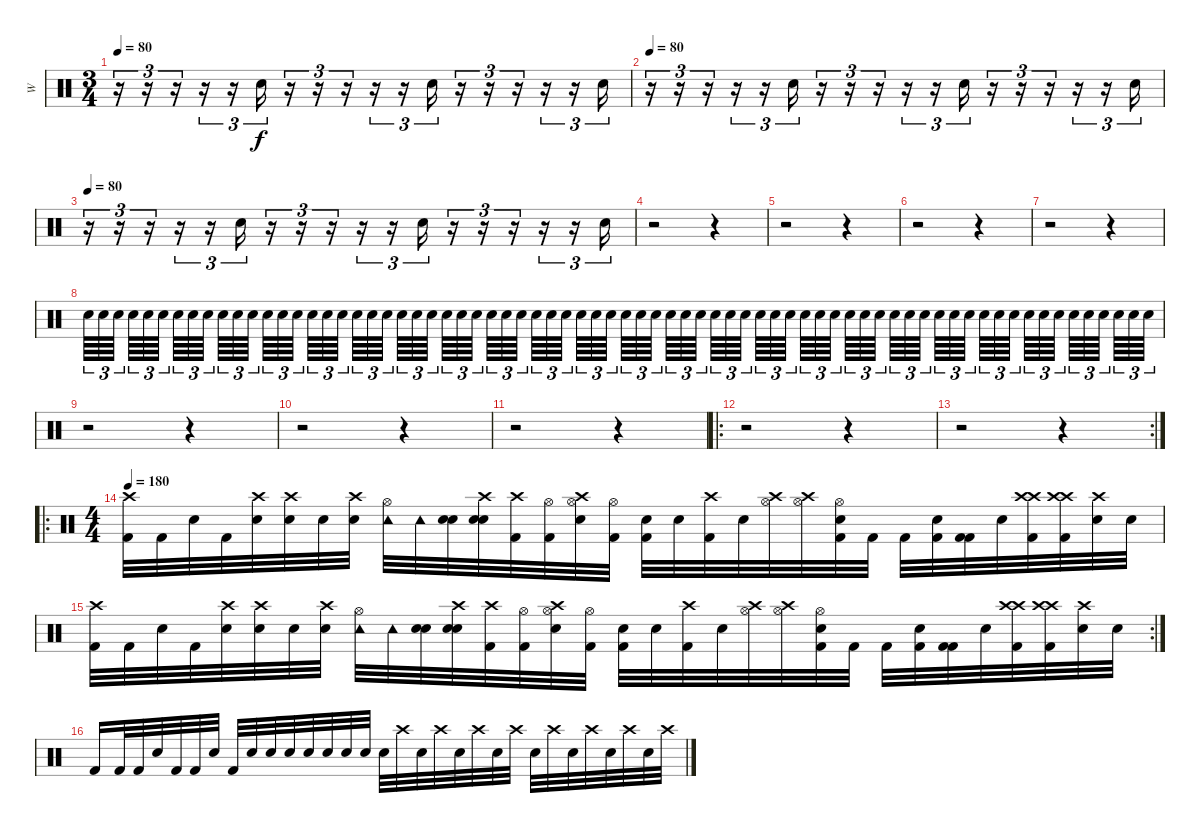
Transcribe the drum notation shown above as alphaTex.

\track ("W" "W") {instrument percussion}
\staff {score}
\articulation defaults
\ts (3 4)
\tempo 2
\tempo 80
\clef neutral
\ks c
r.16{tu (3 2) dy f} r.16{tu (3 2)} r.16{tu (3 2)} r.16{tu (3 2)} r.16{tu (3 2)} "Electric Snare (hit)".16{tu (3 2)} r.16{tu (3 2)} r.16{tu (3 2)} r.16{tu (3 2)} r.16{tu (3 2)} r.16{tu (3 2)} "Electric Snare (hit)".16{tu (3 2)} r.16{tu (3 2)} r.16{tu (3 2)} r.16{tu (3 2)} r.16{tu (3 2)} r.16{tu (3 2)} "Electric Snare (hit)".16{tu (3 2)} |
\tempo 2
\tempo 80
r.16{tu (3 2)} r.16{tu (3 2)} r.16{tu (3 2)} r.16{tu (3 2)} r.16{tu (3 2)} "Electric Snare (hit)".16{tu (3 2)} r.16{tu (3 2)} r.16{tu (3 2)} r.16{tu (3 2)} r.16{tu (3 2)} r.16{tu (3 2)} "Electric Snare (hit)".16{tu (3 2)} r.16{tu (3 2)} r.16{tu (3 2)} r.16{tu (3 2)} r.16{tu (3 2)} r.16{tu (3 2)} "Electric Snare (hit)".16{tu (3 2)} |
\tempo 2
\tempo 80
r.16{tu (3 2)} r.16{tu (3 2)} r.16{tu (3 2)} r.16{tu (3 2)} r.16{tu (3 2)} "Electric Snare (hit)".16{tu (3 2)} r.16{tu (3 2)} r.16{tu (3 2)} r.16{tu (3 2)} r.16{tu (3 2)} r.16{tu (3 2)} "Electric Snare (hit)".16{tu (3 2)} r.16{tu (3 2)} r.16{tu (3 2)} r.16{tu (3 2)} r.16{tu (3 2)} r.16{tu (3 2)} "Electric Snare (hit)".16{tu (3 2)} |
r.2 r.4 |
r.2 r.4 |
r.2 r.4 |
r.2 r.4 |
"Electric Snare (hit)".64{tu (3 2)} "Electric Snare (hit)".64{tu (3 2)} "Electric Snare (hit)".64{tu (3 2)} "Electric Snare (hit)".64{tu (3 2)} "Electric Snare (hit)".64{tu (3 2)} "Electric Snare (hit)".64{tu (3 2)} "Electric Snare (hit)".64{tu (3 2)} "Electric Snare (hit)".64{tu (3 2)} "Electric Snare (hit)".64{tu (3 2)} "Electric Snare (hit)".64{tu (3 2)} "Electric Snare (hit)".64{tu (3 2)} "Electric Snare (hit)".64{tu (3 2)} "Electric Snare (hit)".64{tu (3 2)} "Electric Snare (hit)".64{tu (3 2)} "Electric Snare (hit)".64{tu (3 2)} "Electric Snare (hit)".64{tu (3 2)} "Electric Snare (hit)".64{tu (3 2)} "Electric Snare (hit)".64{tu (3 2)} "Electric Snare (hit)".64{tu (3 2)} "Electric Snare (hit)".64{tu (3 2)} "Electric Snare (hit)".64{tu (3 2)} "Electric Snare (hit)".64{tu (3 2)} "Electric Snare (hit)".64{tu (3 2)} "Electric Snare (hit)".64{tu (3 2)} "Electric Snare (hit)".64{tu (3 2)} "Electric Snare (hit)".64{tu (3 2)} "Electric Snare (hit)".64{tu (3 2)} "Electric Snare (hit)".64{tu (3 2)} "Electric Snare (hit)".64{tu (3 2)} "Electric Snare (hit)".64{tu (3 2)} "Electric Snare (hit)".64{tu (3 2)} "Electric Snare (hit)".64{tu (3 2)} "Electric Snare (hit)".64{tu (3 2)} "Electric Snare (hit)".64{tu (3 2)} "Electric Snare (hit)".64{tu (3 2)} "Electric Snare (hit)".64{tu (3 2)} "Electric Snare (hit)".64{tu (3 2)} "Electric Snare (hit)".64{tu (3 2)} "Electric Snare (hit)".64{tu (3 2)} "Electric Snare (hit)".64{tu (3 2)} "Electric Snare (hit)".64{tu (3 2)} "Electric Snare (hit)".64{tu (3 2)} "Electric Snare (hit)".64{tu (3 2)} "Electric Snare (hit)".64{tu (3 2)} "Electric Snare (hit)".64{tu (3 2)} "Electric Snare (hit)".64{tu (3 2)} "Electric Snare (hit)".64{tu (3 2)} "Electric Snare (hit)".64{tu (3 2)} "Electric Snare (hit)".64{tu (3 2)} "Electric Snare (hit)".64{tu (3 2)} "Electric Snare (hit)".64{tu (3 2)} "Electric Snare (hit)".64{tu (3 2)} "Electric Snare (hit)".64{tu (3 2)} "Electric Snare (hit)".64{tu (3 2)} "Electric Snare (hit)".64{tu (3 2)} "Electric Snare (hit)".64{tu (3 2)} "Electric Snare (hit)".64{tu (3 2)} "Electric Snare (hit)".64{tu (3 2)} "Electric Snare (hit)".64{tu (3 2)} "Electric Snare (hit)".64{tu (3 2)} "Electric Snare (hit)".64{tu (3 2)} "Electric Snare (hit)".64{tu (3 2)} "Electric Snare (hit)".64{tu (3 2)} "Electric Snare (hit)".64{tu (3 2)} "Electric Snare (hit)".64{tu (3 2)} "Electric Snare (hit)".64{tu (3 2)} "Electric Snare (hit)".64{tu (3 2)} "Electric Snare (hit)".64{tu (3 2)} "Electric Snare (hit)".64{tu (3 2)} "Electric Snare (hit)".64{tu (3 2)} "Electric Snare (hit)".64{tu (3 2)} "Electric Snare (hit)".64{tu (3 2)} |
r.2 r.4 |
r.2 r.4 |
r.2 r.4 |
\ro
r.2 r.4 |
\rc 2
r.2 r.4 |
\ro
\ts (4 4)
\tempo 180
("Crash high (hit)" "Kick (hit) 2").32 "Kick (hit) 2".32 "Electric Snare (hit)".32 "Kick (hit) 2".32 ("Crash high (hit)" "Electric Snare (hit)").32 ("Electric Snare (hit)" "Crash high (hit)").32 "Electric Snare (hit)".32 ("Crash high (hit)" "Electric Snare (hit)").32 ("Tambourine (hit)" "Hi-Hat (open)").32 "Tambourine (hit)".32 ("Electric Snare (hit)" "Electric Snare (hit)").32 ("Crash high (hit)" "Electric Snare (hit)" "Electric Snare (hit)").32 ("Kick (hit) 2" "Crash high (hit)").32 ("Kick (hit) 2" "Hi-Hat (open)").32 ("Crash high (hit)" "Hi-Hat (open)" "Electric Snare (hit)").32 ("Hi-Hat (open)" "Kick (hit) 2").32 ("Electric Snare (hit)" "Kick (hit) 2").32 "Electric Snare (hit)".32 ("Crash high (hit)" "Kick (hit) 2").32 "Electric Snare (hit)".32 ("Crash high (hit)" "Hi-Hat (open)").32 ("Crash high (hit)" "Hi-Hat (open)").32 ("Hi-Hat (open)" "Electric Snare (hit)" "Kick (hit) 2").32 "Kick (hit) 2".32 "Kick (hit) 2".32 ("Electric Snare (hit)" "Kick (hit) 2").32 ("Kick (hit) 2" "Kick (hit) 2").32 "Electric Snare (hit)".32 ("Kick (hit) 2" "Crash high (hit)" "Crash high (hit)").32 ("Kick (hit) 2" "Crash high (hit)" "Crash high (hit)").32 ("Electric Snare (hit)" "Crash high (hit)").32 "Electric Snare (hit)".32 |
\rc 2
("Crash high (hit)" "Kick (hit) 2").32 "Kick (hit) 2".32 "Electric Snare (hit)".32 "Kick (hit) 2".32 ("Crash high (hit)" "Electric Snare (hit)").32 ("Electric Snare (hit)" "Crash high (hit)").32 "Electric Snare (hit)".32 ("Crash high (hit)" "Electric Snare (hit)").32 ("Tambourine (hit)" "Hi-Hat (open)").32 "Tambourine (hit)".32 ("Electric Snare (hit)" "Electric Snare (hit)").32 ("Crash high (hit)" "Electric Snare (hit)" "Electric Snare (hit)").32 ("Kick (hit) 2" "Crash high (hit)").32 ("Kick (hit) 2" "Hi-Hat (open)").32 ("Crash high (hit)" "Hi-Hat (open)" "Electric Snare (hit)").32 ("Hi-Hat (open)" "Kick (hit) 2").32 ("Electric Snare (hit)" "Kick (hit) 2").32 "Electric Snare (hit)".32 ("Crash high (hit)" "Kick (hit) 2").32 "Electric Snare (hit)".32 ("Crash high (hit)" "Hi-Hat (open)").32 ("Crash high (hit)" "Hi-Hat (open)").32 ("Hi-Hat (open)" "Electric Snare (hit)" "Kick (hit) 2").32 "Kick (hit) 2".32 "Kick (hit) 2".32 ("Electric Snare (hit)" "Kick (hit) 2").32 ("Kick (hit) 2" "Kick (hit) 2").32 "Electric Snare (hit)".32 ("Kick (hit) 2" "Crash high (hit)" "Crash high (hit)").32 ("Kick (hit) 2" "Crash high (hit)" "Crash high (hit)").32 ("Electric Snare (hit)" "Crash high (hit)").32 "Electric Snare (hit)".32 |
"Kick (hit) 2".16 "Kick (hit) 2".32 "Kick (hit) 2".32 "Electric Snare (hit)".32 "Kick (hit) 2".32 "Kick (hit) 2".32 "Electric Snare (hit)".32 "Kick (hit) 2".32 "Electric Snare (hit)".32 "Electric Snare (hit)".32 "Electric Snare (hit)".32 "Electric Snare (hit)".32 "Electric Snare (hit)".32 "Electric Snare (hit)".32 "Electric Snare (hit)".32 "Electric Snare (hit)".32 "Crash high (hit)".32 "Electric Snare (hit)".32 "Crash high (hit)".32 "Electric Snare (hit)".32 "Crash high (hit)".32 "Electric Snare (hit)".32 "Crash high (hit)".32 "Electric Snare (hit)".32 "Crash high (hit)".32 "Electric Snare (hit)".32 "Crash high (hit)".32 "Electric Snare (hit)".32 "Crash high (hit)".32 "Electric Snare (hit)".32 "Crash high (hit)".32
